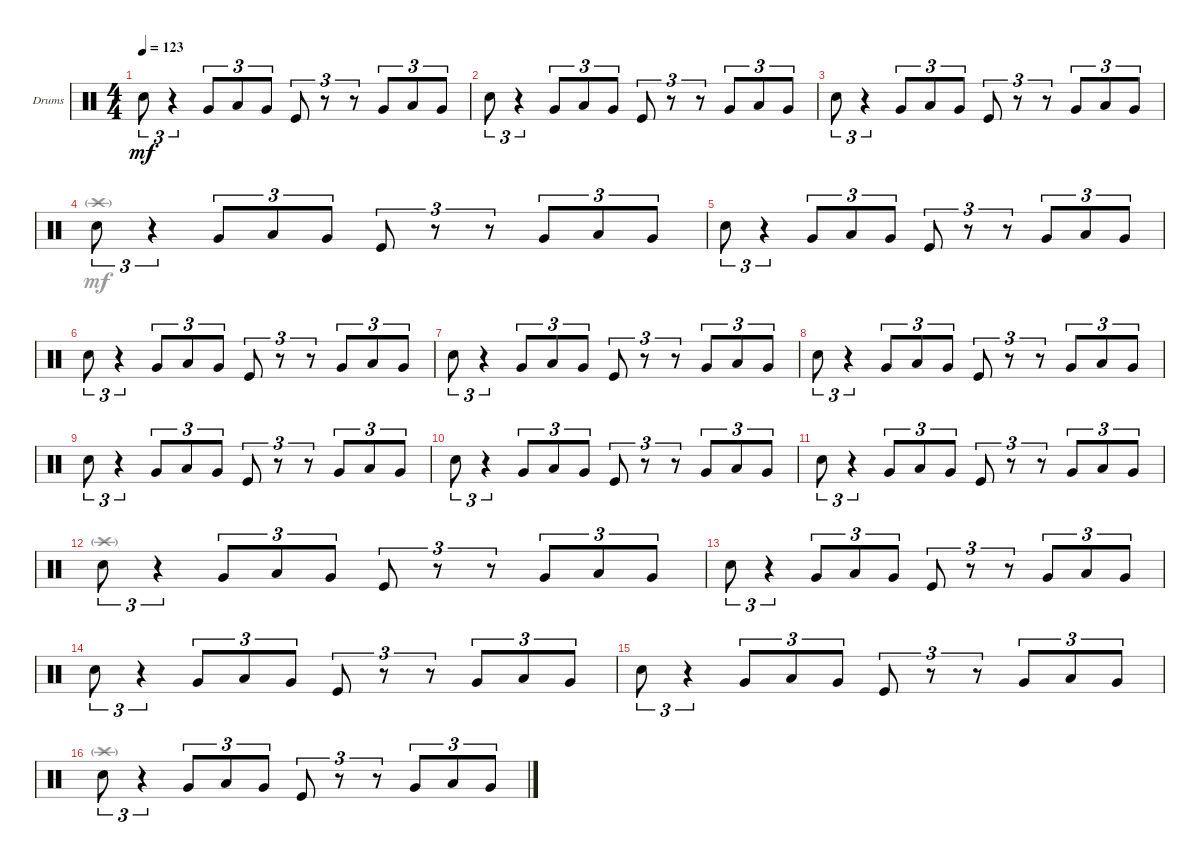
\defaultSystemsLayout 4
\bracketExtendMode groupsimilarinstruments
\firstSystemTrackNameOrientation horizontal
\otherSystemsTrackNameOrientation horizontal
\track ("Drumkit" "Drums") {multiBarRest instrument percussion}
\staff {score}
\articulation defaults
\voice
\ts (4 4)
\tempo 123
\clef neutral
\ks c "Snare (hit) 2".8{tu (3 2) dy mf}
r.4{tu (3 2)} "Very Low Tom (hit)".8{tu (3 2)} "Low Tom (hit)".8{tu (3 2)} "Very Low Tom (hit)".8{tu (3 2)} "Kick (hit)".8{tu (3 2)} r.8{tu (3 2)} r.8{tu (3 2)} "Very Low Tom (hit)".8{tu (3 2)} "Low Tom (hit)".8{tu (3 2)} "Very Low Tom (hit)".8{tu (3 2)} |
"Snare (hit) 2".8{tu (3 2)} r.4{tu (3 2)} "Very Low Tom (hit)".8{tu (3 2)} "Low Tom (hit)".8{tu (3 2)} "Very Low Tom (hit)".8{tu (3 2)} "Kick (hit)".8{tu (3 2)} r.8{tu (3 2)} r.8{tu (3 2)} "Very Low Tom (hit)".8{tu (3 2)} "Low Tom (hit)".8{tu (3 2)} "Very Low Tom (hit)".8{tu (3 2)} |
"Snare (hit) 2".8{tu (3 2)} r.4{tu (3 2)} "Very Low Tom (hit)".8{tu (3 2)} "Low Tom (hit)".8{tu (3 2)} "Very Low Tom (hit)".8{tu (3 2)} "Kick (hit)".8{tu (3 2)} r.8{tu (3 2)} r.8{tu (3 2)} "Very Low Tom (hit)".8{tu (3 2)} "Low Tom (hit)".8{tu (3 2)} "Very Low Tom (hit)".8{tu (3 2)} |
"Snare (hit) 2".8{tu (3 2) beam invert} r.4{tu (3 2)} "Very Low Tom (hit)".8{tu (3 2)} "Low Tom (hit)".8{tu (3 2)} "Very Low Tom (hit)".8{tu (3 2)} "Kick (hit)".8{tu (3 2)} r.8{tu (3 2)} r.8{tu (3 2)} "Very Low Tom (hit)".8{tu (3 2)} "Low Tom (hit)".8{tu (3 2)} "Very Low Tom (hit)".8{tu (3 2)} |
"Snare (hit) 2".8{tu (3 2)} r.4{tu (3 2)} "Very Low Tom (hit)".8{tu (3 2)} "Low Tom (hit)".8{tu (3 2)} "Very Low Tom (hit)".8{tu (3 2)} "Kick (hit)".8{tu (3 2)} r.8{tu (3 2)} r.8{tu (3 2)} "Very Low Tom (hit)".8{tu (3 2)} "Low Tom (hit)".8{tu (3 2)} "Very Low Tom (hit)".8{tu (3 2)} |
"Snare (hit) 2".8{tu (3 2)} r.4{tu (3 2)} "Very Low Tom (hit)".8{tu (3 2)} "Low Tom (hit)".8{tu (3 2)} "Very Low Tom (hit)".8{tu (3 2)} "Kick (hit)".8{tu (3 2)} r.8{tu (3 2)} r.8{tu (3 2)} "Very Low Tom (hit)".8{tu (3 2)} "Low Tom (hit)".8{tu (3 2)} "Very Low Tom (hit)".8{tu (3 2)} |
"Snare (hit) 2".8{tu (3 2)} r.4{tu (3 2)} "Very Low Tom (hit)".8{tu (3 2)} "Low Tom (hit)".8{tu (3 2)} "Very Low Tom (hit)".8{tu (3 2)} "Kick (hit)".8{tu (3 2)} r.8{tu (3 2)} r.8{tu (3 2)} "Very Low Tom (hit)".8{tu (3 2)} "Low Tom (hit)".8{tu (3 2)} "Very Low Tom (hit)".8{tu (3 2)} |
"Snare (hit) 2".8{tu (3 2)} r.4{tu (3 2)} "Very Low Tom (hit)".8{tu (3 2)} "Low Tom (hit)".8{tu (3 2)} "Very Low Tom (hit)".8{tu (3 2)} "Kick (hit)".8{tu (3 2)} r.8{tu (3 2)} r.8{tu (3 2)} "Very Low Tom (hit)".8{tu (3 2)} "Low Tom (hit)".8{tu (3 2)} "Very Low Tom (hit)".8{tu (3 2)} |
"Snare (hit) 2".8{tu (3 2)} r.4{tu (3 2)} "Very Low Tom (hit)".8{tu (3 2)} "Low Tom (hit)".8{tu (3 2)} "Very Low Tom (hit)".8{tu (3 2)} "Kick (hit)".8{tu (3 2)} r.8{tu (3 2)} r.8{tu (3 2)} "Very Low Tom (hit)".8{tu (3 2)} "Low Tom (hit)".8{tu (3 2)} "Very Low Tom (hit)".8{tu (3 2)} |
"Snare (hit) 2".8{tu (3 2)} r.4{tu (3 2)} "Very Low Tom (hit)".8{tu (3 2)} "Low Tom (hit)".8{tu (3 2)} "Very Low Tom (hit)".8{tu (3 2)} "Kick (hit)".8{tu (3 2)} r.8{tu (3 2)} r.8{tu (3 2)} "Very Low Tom (hit)".8{tu (3 2)} "Low Tom (hit)".8{tu (3 2)} "Very Low Tom (hit)".8{tu (3 2)} |
"Snare (hit) 2".8{tu (3 2)} r.4{tu (3 2)} "Very Low Tom (hit)".8{tu (3 2)} "Low Tom (hit)".8{tu (3 2)} "Very Low Tom (hit)".8{tu (3 2)} "Kick (hit)".8{tu (3 2)} r.8{tu (3 2)} r.8{tu (3 2)} "Very Low Tom (hit)".8{tu (3 2)} "Low Tom (hit)".8{tu (3 2)} "Very Low Tom (hit)".8{tu (3 2)} |
"Snare (hit) 2".8{tu (3 2) beam invert} r.4{tu (3 2)} "Very Low Tom (hit)".8{tu (3 2)} "Low Tom (hit)".8{tu (3 2)} "Very Low Tom (hit)".8{tu (3 2)} "Kick (hit)".8{tu (3 2)} r.8{tu (3 2)} r.8{tu (3 2)} "Very Low Tom (hit)".8{tu (3 2)} "Low Tom (hit)".8{tu (3 2)} "Very Low Tom (hit)".8{tu (3 2)} |
"Snare (hit) 2".8{tu (3 2)} r.4{tu (3 2)} "Very Low Tom (hit)".8{tu (3 2)} "Low Tom (hit)".8{tu (3 2)} "Very Low Tom (hit)".8{tu (3 2)} "Kick (hit)".8{tu (3 2)} r.8{tu (3 2)} r.8{tu (3 2)} "Very Low Tom (hit)".8{tu (3 2)} "Low Tom (hit)".8{tu (3 2)} "Very Low Tom (hit)".8{tu (3 2)} |
"Snare (hit) 2".8{tu (3 2)} r.4{tu (3 2)} "Very Low Tom (hit)".8{tu (3 2)} "Low Tom (hit)".8{tu (3 2)} "Very Low Tom (hit)".8{tu (3 2)} "Kick (hit)".8{tu (3 2)} r.8{tu (3 2)} r.8{tu (3 2)} "Very Low Tom (hit)".8{tu (3 2)} "Low Tom (hit)".8{tu (3 2)} "Very Low Tom (hit)".8{tu (3 2)} |
"Snare (hit) 2".8{tu (3 2)} r.4{tu (3 2)} "Very Low Tom (hit)".8{tu (3 2)} "Low Tom (hit)".8{tu (3 2)} "Very Low Tom (hit)".8{tu (3 2)} "Kick (hit)".8{tu (3 2)} r.8{tu (3 2)} r.8{tu (3 2)} "Very Low Tom (hit)".8{tu (3 2)} "Low Tom (hit)".8{tu (3 2)} "Very Low Tom (hit)".8{tu (3 2)} |
"Snare (hit) 2".8{tu (3 2) beam invert} r.4{tu (3 2)} "Very Low Tom (hit)".8{tu (3 2)} "Low Tom (hit)".8{tu (3 2)} "Very Low Tom (hit)".8{tu (3 2)} "Kick (hit)".8{tu (3 2)} r.8{tu (3 2)} r.8{tu (3 2)} "Very Low Tom (hit)".8{tu (3 2)} "Low Tom (hit)".8{tu (3 2)} "Very Low Tom (hit)".8{tu (3 2)}
\voice
\clef neutral
\ottava regular
\simile none
\ks c
|
|
|
"Crash high (hit)"{g}.1 |
|
|
|
|
|
|
|
"Crash high (hit)"{g}.1 |
|
|
|
"Crash high (hit)"{g}.1
